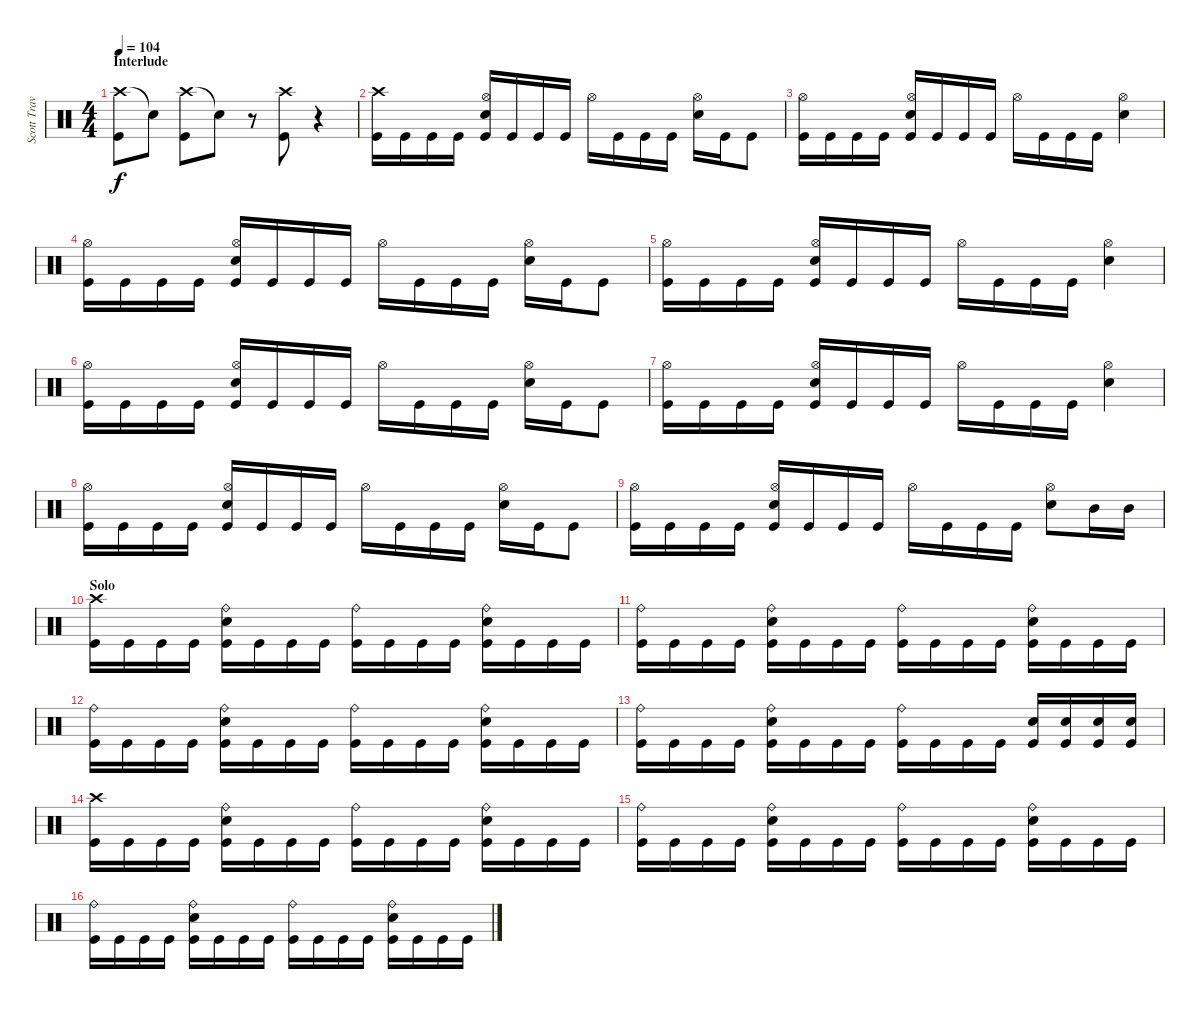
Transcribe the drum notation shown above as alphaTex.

\track ("Scott Travis" "Scott Trav") {instrument percussion}
\staff {score}
\articulation defaults
\ts (4 4)
\section ("" "Interlude")
\tempo 104
\clef neutral
\ks c
("Crash high (hit)" "Kick (hit)").8{dy f} "Snare (hit)"{t}.8{volume 0} ("Crash high (hit)" "Kick (hit)").8{volume 16} "Snare (hit)"{t}.8{volume 0} r.8 ("Crash high (hit)" "Kick (hit)").8{volume 16} r.4{volume 0} |
("Crash high (hit)" "Kick (hit)").16{volume 16} "Kick (hit)".16 "Kick (hit)".16 "Kick (hit)".16 ("Hi-Hat (open)" "Electric Snare (hit)" "Kick (hit)").16 "Kick (hit)".16 "Kick (hit)".16 "Kick (hit)".16 "Hi-Hat (open)".16 "Kick (hit)".16 "Kick (hit)".16 "Kick (hit)".16 ("Hi-Hat (open)" "Electric Snare (hit)").16 "Kick (hit)".16 "Kick (hit)".8 |
("Hi-Hat (open)" "Kick (hit)").16 "Kick (hit)".16 "Kick (hit)".16 "Kick (hit)".16 ("Hi-Hat (open)" "Electric Snare (hit)" "Kick (hit)").16 "Kick (hit)".16 "Kick (hit)".16 "Kick (hit)".16 "Hi-Hat (open)".16 "Kick (hit)".16 "Kick (hit)".16 "Kick (hit)".16 ("Hi-Hat (open)" "Electric Snare (hit)").4 |
("Hi-Hat (open)" "Kick (hit)").16 "Kick (hit)".16 "Kick (hit)".16 "Kick (hit)".16 ("Hi-Hat (open)" "Electric Snare (hit)" "Kick (hit)").16 "Kick (hit)".16 "Kick (hit)".16 "Kick (hit)".16 "Hi-Hat (open)".16 "Kick (hit)".16 "Kick (hit)".16 "Kick (hit)".16 ("Hi-Hat (open)" "Electric Snare (hit)").16 "Kick (hit)".16 "Kick (hit)".8 |
("Hi-Hat (open)" "Kick (hit)").16 "Kick (hit)".16 "Kick (hit)".16 "Kick (hit)".16 ("Hi-Hat (open)" "Electric Snare (hit)" "Kick (hit)").16 "Kick (hit)".16 "Kick (hit)".16 "Kick (hit)".16 "Hi-Hat (open)".16 "Kick (hit)".16 "Kick (hit)".16 "Kick (hit)".16 ("Hi-Hat (open)" "Electric Snare (hit)").4 |
("Hi-Hat (open)" "Kick (hit)").16 "Kick (hit)".16 "Kick (hit)".16 "Kick (hit)".16 ("Hi-Hat (open)" "Electric Snare (hit)" "Kick (hit)").16 "Kick (hit)".16 "Kick (hit)".16 "Kick (hit)".16 "Hi-Hat (open)".16 "Kick (hit)".16 "Kick (hit)".16 "Kick (hit)".16 ("Hi-Hat (open)" "Electric Snare (hit)").16 "Kick (hit)".16 "Kick (hit)".8 |
("Hi-Hat (open)" "Kick (hit)").16 "Kick (hit)".16 "Kick (hit)".16 "Kick (hit)".16 ("Hi-Hat (open)" "Electric Snare (hit)" "Kick (hit)").16 "Kick (hit)".16 "Kick (hit)".16 "Kick (hit)".16 "Hi-Hat (open)".16 "Kick (hit)".16 "Kick (hit)".16 "Kick (hit)".16 ("Hi-Hat (open)" "Electric Snare (hit)").4 |
("Hi-Hat (open)" "Kick (hit)").16 "Kick (hit)".16 "Kick (hit)".16 "Kick (hit)".16 ("Hi-Hat (open)" "Electric Snare (hit)" "Kick (hit)").16 "Kick (hit)".16 "Kick (hit)".16 "Kick (hit)".16 "Hi-Hat (open)".16 "Kick (hit)".16 "Kick (hit)".16 "Kick (hit)".16 ("Hi-Hat (open)" "Electric Snare (hit)").16 "Kick (hit)".16 "Kick (hit)".8 |
("Hi-Hat (open)" "Kick (hit)").16 "Kick (hit)".16 "Kick (hit)".16 "Kick (hit)".16 ("Hi-Hat (open)" "Electric Snare (hit)" "Kick (hit)").16 "Kick (hit)".16 "Kick (hit)".16 "Kick (hit)".16 "Hi-Hat (open)".16 "Kick (hit)".16 "Kick (hit)".16 "Kick (hit)".16 ("Hi-Hat (open)" "Electric Snare (hit)").8 "Mid Tom (hit)".16 "Mid Tom (hit)".16 |
\section ("" "Solo")
("Crash high (hit)" "Kick (hit)").16 "Kick (hit)".16 "Kick (hit)".16 "Kick (hit)".16 ("Ride (bell)" "Electric Snare (hit)" "Kick (hit)").16 "Kick (hit)".16 "Kick (hit)".16 "Kick (hit)".16 ("Ride (bell)" "Kick (hit)").16 "Kick (hit)".16 "Kick (hit)".16 "Kick (hit)".16 ("Ride (bell)" "Electric Snare (hit)" "Kick (hit)").16 "Kick (hit)".16 "Kick (hit)".16 "Kick (hit)".16 |
("Ride (bell)" "Kick (hit)").16 "Kick (hit)".16 "Kick (hit)".16 "Kick (hit)".16 ("Ride (bell)" "Electric Snare (hit)" "Kick (hit)").16 "Kick (hit)".16 "Kick (hit)".16 "Kick (hit)".16 ("Ride (bell)" "Kick (hit)").16 "Kick (hit)".16 "Kick (hit)".16 "Kick (hit)".16 ("Ride (bell)" "Electric Snare (hit)" "Kick (hit)").16 "Kick (hit)".16 "Kick (hit)".16 "Kick (hit)".16 |
("Ride (bell)" "Kick (hit)").16 "Kick (hit)".16 "Kick (hit)".16 "Kick (hit)".16 ("Ride (bell)" "Electric Snare (hit)" "Kick (hit)").16 "Kick (hit)".16 "Kick (hit)".16 "Kick (hit)".16 ("Ride (bell)" "Kick (hit)").16 "Kick (hit)".16 "Kick (hit)".16 "Kick (hit)".16 ("Ride (bell)" "Electric Snare (hit)" "Kick (hit)").16 "Kick (hit)".16 "Kick (hit)".16 "Kick (hit)".16 |
("Ride (bell)" "Kick (hit)").16 "Kick (hit)".16 "Kick (hit)".16 "Kick (hit)".16 ("Ride (bell)" "Electric Snare (hit)" "Kick (hit)").16 "Kick (hit)".16 "Kick (hit)".16 "Kick (hit)".16 ("Ride (bell)" "Kick (hit)").16 "Kick (hit)".16 "Kick (hit)".16 "Kick (hit)".16 ("Electric Snare (hit)" "Kick (hit)").16 ("Electric Snare (hit)" "Kick (hit)").16 ("Electric Snare (hit)" "Kick (hit)").16 ("Electric Snare (hit)" "Kick (hit)").16 |
("Crash high (hit)" "Kick (hit)").16 "Kick (hit)".16 "Kick (hit)".16 "Kick (hit)".16 ("Ride (bell)" "Electric Snare (hit)" "Kick (hit)").16 "Kick (hit)".16 "Kick (hit)".16 "Kick (hit)".16 ("Ride (bell)" "Kick (hit)").16 "Kick (hit)".16 "Kick (hit)".16 "Kick (hit)".16 ("Ride (bell)" "Electric Snare (hit)" "Kick (hit)").16 "Kick (hit)".16 "Kick (hit)".16 "Kick (hit)".16 |
("Ride (bell)" "Kick (hit)").16 "Kick (hit)".16 "Kick (hit)".16 "Kick (hit)".16 ("Ride (bell)" "Electric Snare (hit)" "Kick (hit)").16 "Kick (hit)".16 "Kick (hit)".16 "Kick (hit)".16 ("Ride (bell)" "Kick (hit)").16 "Kick (hit)".16 "Kick (hit)".16 "Kick (hit)".16 ("Ride (bell)" "Electric Snare (hit)" "Kick (hit)").16 "Kick (hit)".16 "Kick (hit)".16 "Kick (hit)".16 |
("Ride (bell)" "Kick (hit)").16 "Kick (hit)".16 "Kick (hit)".16 "Kick (hit)".16 ("Ride (bell)" "Electric Snare (hit)" "Kick (hit)").16 "Kick (hit)".16 "Kick (hit)".16 "Kick (hit)".16 ("Ride (bell)" "Kick (hit)").16 "Kick (hit)".16 "Kick (hit)".16 "Kick (hit)".16 ("Ride (bell)" "Electric Snare (hit)" "Kick (hit)").16 "Kick (hit)".16 "Kick (hit)".16 "Kick (hit)".16
